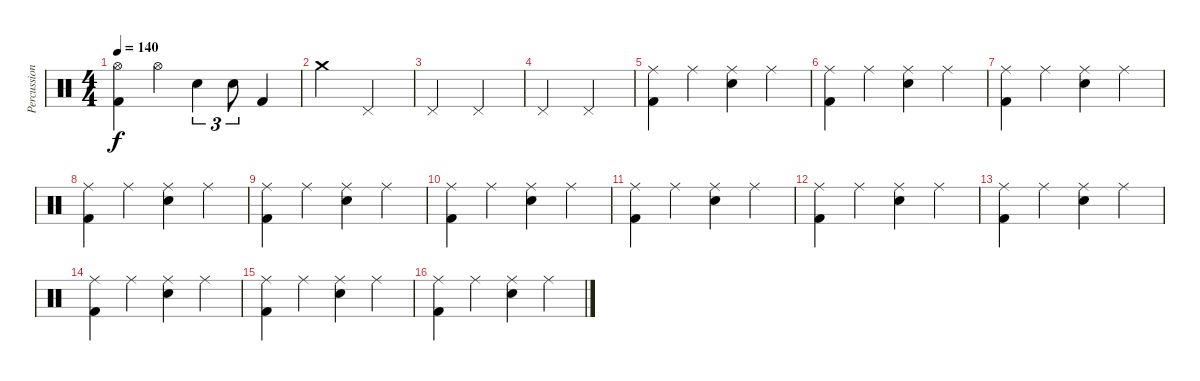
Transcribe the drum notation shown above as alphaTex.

\track ("Percussion" "Percussion") {instrument percussion}
\staff {score}
\articulation defaults
\ts (4 4)
\tempo 140
\clef neutral
\ks c
("Hi-Hat (open)" "Kick (hit) 2").4{dy f} "Hi-Hat (open)".4 "Snare (hit) 2".4{tu (3 2)} "Snare (hit) 2".8{tu (3 2)} "Kick (hit) 2".4 |
"Crash medium (hit)".2 "Pedal Hi-Hat (hit)".2 |
"Pedal Hi-Hat (hit)".2 "Pedal Hi-Hat (hit)".2 |
"Pedal Hi-Hat (hit)".2 "Pedal Hi-Hat (hit)".2 |
("Ride (middle)" "Kick (hit) 2").4 "Ride (middle)".4 ("Ride (middle)" "Snare (hit) 2").4 "Ride (middle)".4 |
("Ride (middle)" "Kick (hit) 2").4 "Ride (middle)".4 ("Ride (middle)" "Snare (hit) 2").4 "Ride (middle)".4 |
("Ride (middle)" "Kick (hit) 2").4 "Ride (middle)".4 ("Ride (middle)" "Snare (hit) 2").4 "Ride (middle)".4 |
("Ride (middle)" "Kick (hit) 2").4 "Ride (middle)".4 ("Ride (middle)" "Snare (hit) 2").4 "Ride (middle)".4 |
("Ride (middle)" "Kick (hit) 2").4 "Ride (middle)".4 ("Ride (middle)" "Snare (hit) 2").4 "Ride (middle)".4 |
("Ride (middle)" "Kick (hit) 2").4 "Ride (middle)".4 ("Ride (middle)" "Snare (hit) 2").4 "Ride (middle)".4 |
("Ride (middle)" "Kick (hit) 2").4 "Ride (middle)".4 ("Ride (middle)" "Snare (hit) 2").4 "Ride (middle)".4 |
("Ride (middle)" "Kick (hit) 2").4 "Ride (middle)".4 ("Ride (middle)" "Snare (hit) 2").4 "Ride (middle)".4 |
("Ride (middle)" "Kick (hit) 2").4 "Ride (middle)".4 ("Ride (middle)" "Snare (hit) 2").4 "Ride (middle)".4 |
("Ride (middle)" "Kick (hit) 2").4 "Ride (middle)".4 ("Ride (middle)" "Snare (hit) 2").4 "Ride (middle)".4 |
("Ride (middle)" "Kick (hit) 2").4 "Ride (middle)".4 ("Ride (middle)" "Snare (hit) 2").4 "Ride (middle)".4 |
("Ride (middle)" "Kick (hit) 2").4 "Ride (middle)".4 ("Ride (middle)" "Snare (hit) 2").4 "Ride (middle)".4
